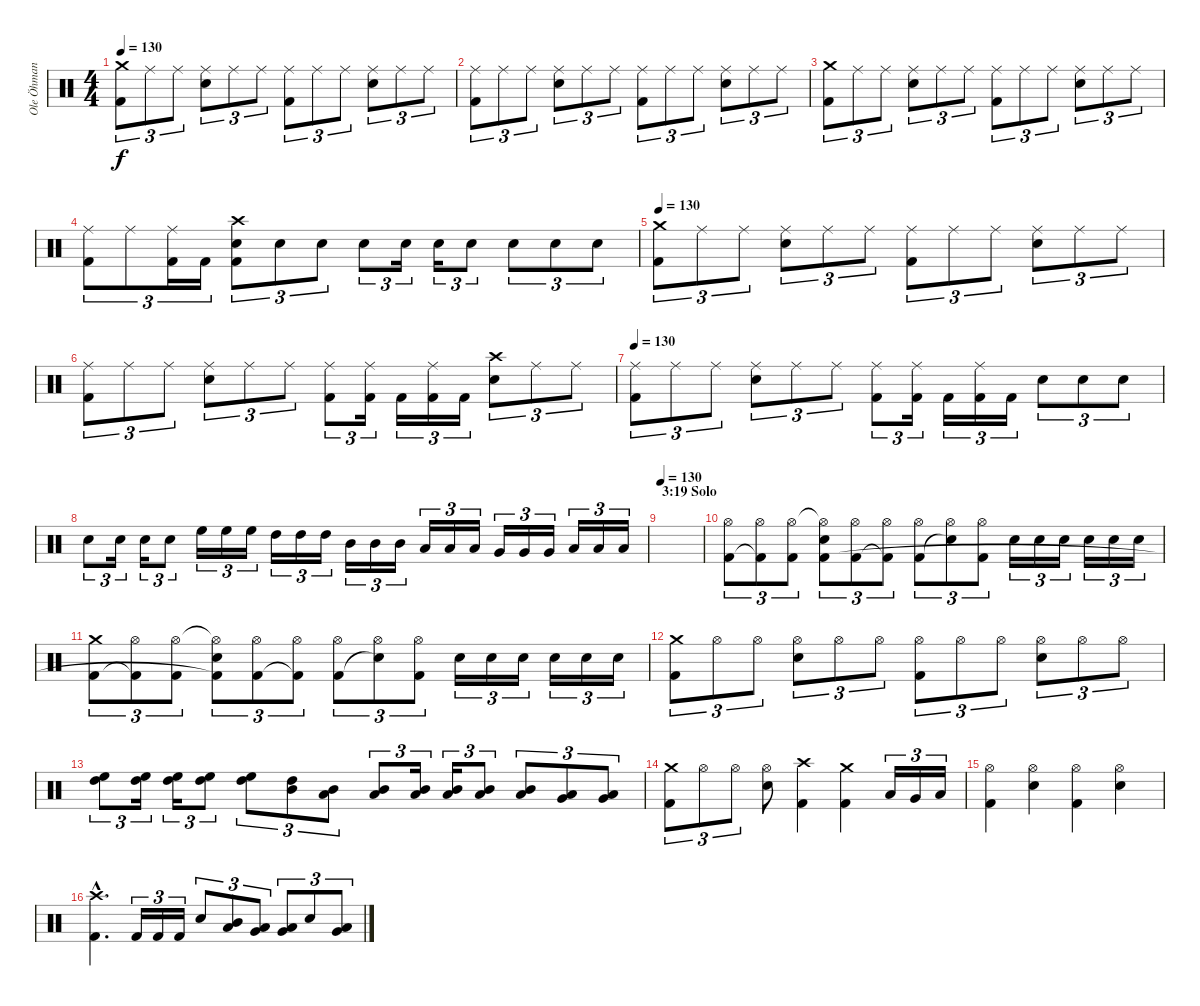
\track ("Ole Öhman" "Ole Öhman") {instrument percussion}
\staff {score}
\articulation defaults
\ts (4 4)
\tempo 130
\clef neutral
\ks c
("Crash medium (hit)" "Kick (hit) 2").8{tu (3 2) dy f} "Ride (middle)".8{tu (3 2)} "Ride (middle)".8{tu (3 2)} ("Ride (middle)" "Electric Snare (hit)").8{tu (3 2)} "Ride (middle)".8{tu (3 2)} "Ride (middle)".8{tu (3 2)} ("Ride (middle)" "Kick (hit) 2").8{tu (3 2)} "Ride (middle)".8{tu (3 2)} "Ride (middle)".8{tu (3 2)} ("Ride (middle)" "Electric Snare (hit)").8{tu (3 2)} "Ride (middle)".8{tu (3 2)} "Ride (middle)".8{tu (3 2)} |
("Ride (middle)" "Kick (hit) 2").8{tu (3 2)} "Ride (middle)".8{tu (3 2)} "Ride (middle)".8{tu (3 2)} ("Ride (middle)" "Electric Snare (hit)").8{tu (3 2)} "Ride (middle)".8{tu (3 2)} "Ride (middle)".8{tu (3 2)} ("Ride (middle)" "Kick (hit) 2").8{tu (3 2)} "Ride (middle)".8{tu (3 2)} "Ride (middle)".8{tu (3 2)} ("Ride (middle)" "Electric Snare (hit)").8{tu (3 2)} "Ride (middle)".8{tu (3 2)} "Ride (middle)".8{tu (3 2)} |
("Crash medium (hit)" "Kick (hit) 2").8{tu (3 2)} "Ride (middle)".8{tu (3 2)} "Ride (middle)".8{tu (3 2)} ("Ride (middle)" "Electric Snare (hit)").8{tu (3 2)} "Ride (middle)".8{tu (3 2)} "Ride (middle)".8{tu (3 2)} ("Ride (middle)" "Kick (hit) 2").8{tu (3 2)} "Ride (middle)".8{tu (3 2)} "Ride (middle)".8{tu (3 2)} ("Ride (middle)" "Electric Snare (hit)").8{tu (3 2)} "Ride (middle)".8{tu (3 2)} "Ride (middle)".8{tu (3 2)} |
("Ride (middle)" "Kick (hit) 2").8{tu (3 2)} "Ride (middle)".8{tu (3 2)} ("Ride (middle)" "Kick (hit) 2").16{tu (3 2)} "Kick (hit) 2".16{tu (3 2)} ("Crash high (hit)" "Electric Snare (hit)" "Kick (hit) 2").8{tu (3 2)} "Electric Snare (hit)".8{tu (3 2)} "Electric Snare (hit)".8{tu (3 2)} "Electric Snare (hit)".8{tu (3 2)} "Electric Snare (hit)".16{tu (3 2)} "Electric Snare (hit)".16{tu (3 2)} "Electric Snare (hit)".8{tu (3 2)} "Electric Snare (hit)".8{tu (3 2)} "Electric Snare (hit)".8{tu (3 2)} "Electric Snare (hit)".8{tu (3 2)} |
\tempo 130
("Crash medium (hit)" "Kick (hit) 2").8{tu (3 2)} "Ride (middle)".8{tu (3 2)} "Ride (middle)".8{tu (3 2)} ("Ride (middle)" "Electric Snare (hit)").8{tu (3 2)} "Ride (middle)".8{tu (3 2)} "Ride (middle)".8{tu (3 2)} ("Ride (middle)" "Kick (hit) 2").8{tu (3 2)} "Ride (middle)".8{tu (3 2)} "Ride (middle)".8{tu (3 2)} ("Ride (middle)" "Electric Snare (hit)").8{tu (3 2)} "Ride (middle)".8{tu (3 2)} "Ride (middle)".8{tu (3 2)} |
("Ride (middle)" "Kick (hit) 2").8{tu (3 2)} "Ride (middle)".8{tu (3 2)} "Ride (middle)".8{tu (3 2)} ("Ride (middle)" "Electric Snare (hit)").8{tu (3 2)} "Ride (middle)".8{tu (3 2)} "Ride (middle)".8{tu (3 2)} ("Ride (middle)" "Kick (hit) 2").8{tu (3 2)} ("Ride (middle)" "Kick (hit) 2").16{tu (3 2)} "Kick (hit) 2".16{tu (3 2)} ("Ride (middle)" "Kick (hit) 2").16{tu (3 2)} "Kick (hit) 2".16{tu (3 2)} ("Crash high (hit)" "Electric Snare (hit)").8{tu (3 2)} "Ride (middle)".8{tu (3 2)} "Ride (middle)".8{tu (3 2)} |
\tempo 130
("Ride (middle)" "Kick (hit) 2").8{tu (3 2)} "Ride (middle)".8{tu (3 2)} "Ride (middle)".8{tu (3 2)} ("Ride (middle)" "Electric Snare (hit)").8{tu (3 2)} "Ride (middle)".8{tu (3 2)} "Ride (middle)".8{tu (3 2)} ("Ride (middle)" "Kick (hit) 2").8{tu (3 2)} ("Ride (middle)" "Kick (hit) 2").16{tu (3 2)} "Kick (hit) 2".16{tu (3 2)} ("Ride (middle)" "Kick (hit) 2").16{tu (3 2)} "Kick (hit) 2".16{tu (3 2)} "Electric Snare (hit)".8{tu (3 2)} "Electric Snare (hit)".8{tu (3 2)} "Electric Snare (hit)".8{tu (3 2)} |
"Electric Snare (hit)".8{tu (3 2)} "Electric Snare (hit)".16{tu (3 2)} "Electric Snare (hit)".16{tu (3 2)} "Electric Snare (hit)".8{tu (3 2)} "High Floor Tom (hit)".16{tu (3 2)} "High Floor Tom (hit)".16{tu (3 2)} "High Floor Tom (hit)".16{tu (3 2)} "High Tom (hit)".16{tu (3 2)} "High Tom (hit)".16{tu (3 2)} "High Tom (hit)".16{tu (3 2)} "Mid Tom (hit)".16{tu (3 2)} "Mid Tom (hit)".16{tu (3 2)} "Mid Tom (hit)".16{tu (3 2)} "Low Tom (hit)".16{tu (3 2)} "Low Tom (hit)".16{tu (3 2)} "Low Tom (hit)".16{tu (3 2)} "Very Low Tom (hit)".16{tu (3 2)} "Very Low Tom (hit)".16{tu (3 2)} "Very Low Tom (hit)".16{tu (3 2)} "Low Floor Tom (hit)".16{tu (3 2)} "Low Floor Tom (hit)".16{tu (3 2)} "Low Floor Tom (hit)".16{tu (3 2)} |
\section ("" "3:19 Solo")
\tempo 130
|
("Hi-Hat (open)" "Kick (hit) 2").8{tu (3 2)} ("Hi-Hat (open)" "Kick (hit) 2"{t}).8{tu (3 2)} ("Hi-Hat (open)" "Kick (hit) 2").8{tu (3 2)} ("Hi-Hat (open)"{t} "Electric Snare (hit)" "Kick (hit) 2").8{tu (3 2)} ("Hi-Hat (open)" "Kick (hit) 2").8{tu (3 2)} ("Hi-Hat (open)" "Kick (hit) 2"{t}).8{tu (3 2)} ("Hi-Hat (open)" "Kick (hit) 2").8{tu (3 2)} ("Hi-Hat (open)" "Snare (hit)"{t}).8{tu (3 2)} ("Hi-Hat (open)" "Kick (hit) 2").8{tu (3 2)} "Electric Snare (hit)".16{tu (3 2)} "Electric Snare (hit)".16{tu (3 2)} "Electric Snare (hit)".16{tu (3 2)} "Electric Snare (hit)".16{tu (3 2)} "Electric Snare (hit)".16{tu (3 2)} "Electric Snare (hit)".16{tu (3 2)} |
("Crash medium (hit)" "Kick (hit) 2").8{tu (3 2)} ("Hi-Hat (open)" "Kick (hit) 2"{t}).8{tu (3 2)} ("Hi-Hat (open)" "Kick (hit) 2").8{tu (3 2)} ("Hi-Hat (open)"{t} "Electric Snare (hit)" "Kick (hit) 2"{t}).8{tu (3 2)} ("Hi-Hat (open)" "Kick (hit) 2").8{tu (3 2)} ("Hi-Hat (open)" "Kick (hit) 2"{t}).8{tu (3 2)} ("Hi-Hat (open)" "Kick (hit) 2").8{tu (3 2)} ("Hi-Hat (open)" "Snare (hit)"{t}).8{tu (3 2)} ("Hi-Hat (open)" "Kick (hit) 2").8{tu (3 2)} "Electric Snare (hit)".16{tu (3 2)} "Electric Snare (hit)".16{tu (3 2)} "Electric Snare (hit)".16{tu (3 2)} "Electric Snare (hit)".16{tu (3 2)} "Electric Snare (hit)".16{tu (3 2)} "Electric Snare (hit)".16{tu (3 2)} |
("Crash medium (hit)" "Kick (hit) 2").8{tu (3 2)} "Hi-Hat (open)".8{tu (3 2)} "Hi-Hat (open)".8{tu (3 2)} ("Hi-Hat (open)" "Electric Snare (hit)").8{tu (3 2)} "Hi-Hat (open)".8{tu (3 2)} "Hi-Hat (open)".8{tu (3 2)} ("Hi-Hat (open)" "Kick (hit) 2").8{tu (3 2)} "Hi-Hat (open)".8{tu (3 2)} "Hi-Hat (open)".8{tu (3 2)} ("Hi-Hat (open)" "Electric Snare (hit)").8{tu (3 2)} "Hi-Hat (open)".8{tu (3 2)} "Hi-Hat (open)".8{tu (3 2)} |
("High Floor Tom (hit)" "High Tom (hit)").8{tu (3 2)} ("High Floor Tom (hit)" "High Tom (hit)").16{tu (3 2)} ("High Floor Tom (hit)" "High Tom (hit)").16{tu (3 2)} ("High Floor Tom (hit)" "High Tom (hit)").8{tu (3 2)} ("High Floor Tom (hit)" "High Tom (hit)").8{tu (3 2)} ("High Tom (hit)" "Mid Tom (hit)").8{tu (3 2)} ("Mid Tom (hit)" "Low Tom (hit)").8{tu (3 2)} ("Mid Tom (hit)" "Low Tom (hit)").8{tu (3 2)} ("Mid Tom (hit)" "Low Tom (hit)").16{tu (3 2)} ("Mid Tom (hit)" "Low Tom (hit)").16{tu (3 2)} ("Mid Tom (hit)" "Low Tom (hit)").8{tu (3 2)} ("Mid Tom (hit)" "Low Tom (hit)").8{tu (3 2)} ("Low Tom (hit)" "Very Low Tom (hit)").8{tu (3 2)} ("Very Low Tom (hit)" "Low Floor Tom (hit)").8{tu (3 2)} |
("Crash medium (hit)" "Kick (hit) 2").8{tu (3 2)} "Hi-Hat (open)".8{tu (3 2)} "Hi-Hat (open)".8{tu (3 2)} ("Hi-Hat (open)" "Electric Snare (hit)").8 ("Crash high (hit)" "Kick (hit) 2").4 ("Crash medium (hit)" "Kick (hit) 2").4 "Low Tom (hit)".16{tu (3 2)} "Very Low Tom (hit)".16{tu (3 2)} "Low Floor Tom (hit)".16{tu (3 2)} |
("Hi-Hat (open)" "Kick (hit) 2").4 ("Hi-Hat (open)" "Electric Snare (hit)").4 ("Hi-Hat (open)" "Kick (hit) 2").4 ("Hi-Hat (open)" "Electric Snare (hit)").4 |
("Crash high (hit)"{hac} "Kick (hit) 2"{hac}).4{d} "Kick (hit) 2".16{tu (3 2)} "Kick (hit) 2".16{tu (3 2)} "Kick (hit) 2".16{tu (3 2)} "Electric Snare (hit)".8{tu (3 2)} ("Mid Tom (hit)" "Low Tom (hit)").8{tu (3 2)} ("Low Tom (hit)" "Very Low Tom (hit)").8{tu (3 2)} ("Very Low Tom (hit)" "Low Floor Tom (hit)").8{tu (3 2)} "Electric Snare (hit)".8{tu (3 2)} ("Very Low Tom (hit)" "Low Floor Tom (hit)").8{tu (3 2)}
